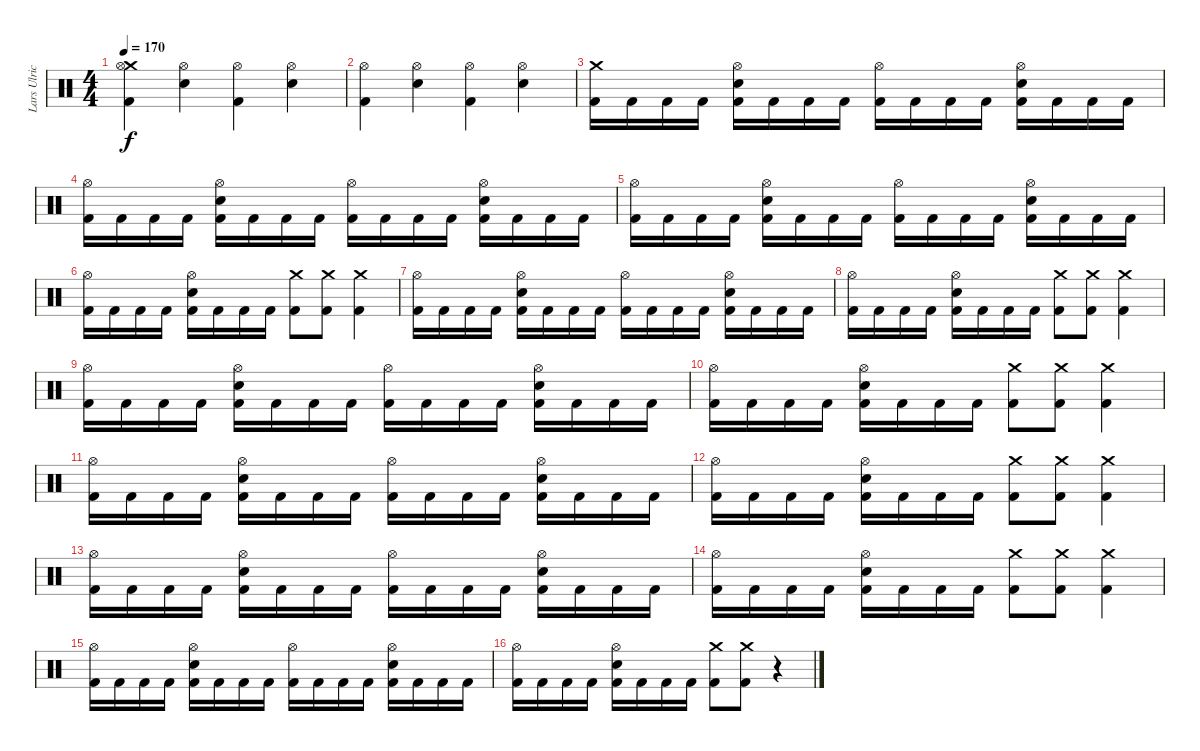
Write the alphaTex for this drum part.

\track ("Lars Ulrich" "Lars Ulric") {instrument percussion}
\staff {score}
\articulation defaults
\ts (4 4)
\tempo 170
\clef neutral
\ks c
("Crash medium (hit)" "Hi-Hat (open)" "Kick (hit) 2").4{dy f} ("Hi-Hat (open)" "Electric Snare (hit)").4 ("Hi-Hat (open)" "Kick (hit) 2").4 ("Hi-Hat (open)" "Electric Snare (hit)").4 |
("Hi-Hat (open)" "Kick (hit) 2").4 ("Hi-Hat (open)" "Electric Snare (hit)").4 ("Hi-Hat (open)" "Kick (hit) 2").4 ("Hi-Hat (open)" "Electric Snare (hit)").4 |
("Crash medium (hit)" "Kick (hit) 2").16 "Kick (hit) 2".16 "Kick (hit) 2".16 "Kick (hit) 2".16 ("Hi-Hat (open)" "Electric Snare (hit)" "Kick (hit) 2").16 "Kick (hit) 2".16 "Kick (hit) 2".16 "Kick (hit) 2".16 ("Hi-Hat (open)" "Kick (hit) 2").16 "Kick (hit) 2".16 "Kick (hit) 2".16 "Kick (hit) 2".16 ("Hi-Hat (open)" "Electric Snare (hit)" "Kick (hit) 2").16 "Kick (hit) 2".16 "Kick (hit) 2".16 "Kick (hit) 2".16 |
("Hi-Hat (open)" "Kick (hit) 2").16 "Kick (hit) 2".16 "Kick (hit) 2".16 "Kick (hit) 2".16 ("Hi-Hat (open)" "Electric Snare (hit)" "Kick (hit) 2").16 "Kick (hit) 2".16 "Kick (hit) 2".16 "Kick (hit) 2".16 ("Hi-Hat (open)" "Kick (hit) 2").16 "Kick (hit) 2".16 "Kick (hit) 2".16 "Kick (hit) 2".16 ("Hi-Hat (open)" "Electric Snare (hit)" "Kick (hit) 2").16 "Kick (hit) 2".16 "Kick (hit) 2".16 "Kick (hit) 2".16 |
("Hi-Hat (open)" "Kick (hit) 2").16 "Kick (hit) 2".16 "Kick (hit) 2".16 "Kick (hit) 2".16 ("Hi-Hat (open)" "Electric Snare (hit)" "Kick (hit) 2").16 "Kick (hit) 2".16 "Kick (hit) 2".16 "Kick (hit) 2".16 ("Hi-Hat (open)" "Kick (hit) 2").16 "Kick (hit) 2".16 "Kick (hit) 2".16 "Kick (hit) 2".16 ("Hi-Hat (open)" "Electric Snare (hit)" "Kick (hit) 2").16 "Kick (hit) 2".16 "Kick (hit) 2".16 "Kick (hit) 2".16 |
("Hi-Hat (open)" "Kick (hit) 2").16 "Kick (hit) 2".16 "Kick (hit) 2".16 "Kick (hit) 2".16 ("Hi-Hat (open)" "Electric Snare (hit)" "Kick (hit) 2").16 "Kick (hit) 2".16 "Kick (hit) 2".16 "Kick (hit) 2".16 ("Crash medium (hit)" "Kick (hit) 2").8 ("Crash medium (hit)" "Kick (hit) 2").8 ("Crash medium (hit)" "Kick (hit) 2").4 |
("Hi-Hat (open)" "Kick (hit) 2").16 "Kick (hit) 2".16 "Kick (hit) 2".16 "Kick (hit) 2".16 ("Hi-Hat (open)" "Electric Snare (hit)" "Kick (hit) 2").16 "Kick (hit) 2".16 "Kick (hit) 2".16 "Kick (hit) 2".16 ("Hi-Hat (open)" "Kick (hit) 2").16 "Kick (hit) 2".16 "Kick (hit) 2".16 "Kick (hit) 2".16 ("Hi-Hat (open)" "Electric Snare (hit)" "Kick (hit) 2").16 "Kick (hit) 2".16 "Kick (hit) 2".16 "Kick (hit) 2".16 |
("Hi-Hat (open)" "Kick (hit) 2").16 "Kick (hit) 2".16 "Kick (hit) 2".16 "Kick (hit) 2".16 ("Hi-Hat (open)" "Electric Snare (hit)" "Kick (hit) 2").16 "Kick (hit) 2".16 "Kick (hit) 2".16 "Kick (hit) 2".16 ("Crash medium (hit)" "Kick (hit) 2").8 ("Crash medium (hit)" "Kick (hit) 2").8 ("Crash medium (hit)" "Kick (hit) 2").4 |
("Hi-Hat (open)" "Kick (hit) 2").16 "Kick (hit) 2".16 "Kick (hit) 2".16 "Kick (hit) 2".16 ("Hi-Hat (open)" "Electric Snare (hit)" "Kick (hit) 2").16 "Kick (hit) 2".16 "Kick (hit) 2".16 "Kick (hit) 2".16 ("Hi-Hat (open)" "Kick (hit) 2").16 "Kick (hit) 2".16 "Kick (hit) 2".16 "Kick (hit) 2".16 ("Hi-Hat (open)" "Electric Snare (hit)" "Kick (hit) 2").16 "Kick (hit) 2".16 "Kick (hit) 2".16 "Kick (hit) 2".16 |
("Hi-Hat (open)" "Kick (hit) 2").16 "Kick (hit) 2".16 "Kick (hit) 2".16 "Kick (hit) 2".16 ("Hi-Hat (open)" "Electric Snare (hit)" "Kick (hit) 2").16 "Kick (hit) 2".16 "Kick (hit) 2".16 "Kick (hit) 2".16 ("Crash medium (hit)" "Kick (hit) 2").8 ("Crash medium (hit)" "Kick (hit) 2").8 ("Crash medium (hit)" "Kick (hit) 2").4 |
("Hi-Hat (open)" "Kick (hit) 2").16 "Kick (hit) 2".16 "Kick (hit) 2".16 "Kick (hit) 2".16 ("Hi-Hat (open)" "Electric Snare (hit)" "Kick (hit) 2").16 "Kick (hit) 2".16 "Kick (hit) 2".16 "Kick (hit) 2".16 ("Hi-Hat (open)" "Kick (hit) 2").16 "Kick (hit) 2".16 "Kick (hit) 2".16 "Kick (hit) 2".16 ("Hi-Hat (open)" "Electric Snare (hit)" "Kick (hit) 2").16 "Kick (hit) 2".16 "Kick (hit) 2".16 "Kick (hit) 2".16 |
("Hi-Hat (open)" "Kick (hit) 2").16 "Kick (hit) 2".16 "Kick (hit) 2".16 "Kick (hit) 2".16 ("Hi-Hat (open)" "Electric Snare (hit)" "Kick (hit) 2").16 "Kick (hit) 2".16 "Kick (hit) 2".16 "Kick (hit) 2".16 ("Crash medium (hit)" "Kick (hit) 2").8 ("Crash medium (hit)" "Kick (hit) 2").8 ("Crash medium (hit)" "Kick (hit) 2").4 |
("Hi-Hat (open)" "Kick (hit) 2").16 "Kick (hit) 2".16 "Kick (hit) 2".16 "Kick (hit) 2".16 ("Hi-Hat (open)" "Electric Snare (hit)" "Kick (hit) 2").16 "Kick (hit) 2".16 "Kick (hit) 2".16 "Kick (hit) 2".16 ("Hi-Hat (open)" "Kick (hit) 2").16 "Kick (hit) 2".16 "Kick (hit) 2".16 "Kick (hit) 2".16 ("Hi-Hat (open)" "Electric Snare (hit)" "Kick (hit) 2").16 "Kick (hit) 2".16 "Kick (hit) 2".16 "Kick (hit) 2".16 |
("Hi-Hat (open)" "Kick (hit) 2").16 "Kick (hit) 2".16 "Kick (hit) 2".16 "Kick (hit) 2".16 ("Hi-Hat (open)" "Electric Snare (hit)" "Kick (hit) 2").16 "Kick (hit) 2".16 "Kick (hit) 2".16 "Kick (hit) 2".16 ("Crash medium (hit)" "Kick (hit) 2").8 ("Crash medium (hit)" "Kick (hit) 2").8 ("Crash medium (hit)" "Kick (hit) 2").4 |
("Hi-Hat (open)" "Kick (hit) 2").16 "Kick (hit) 2".16 "Kick (hit) 2".16 "Kick (hit) 2".16 ("Hi-Hat (open)" "Electric Snare (hit)" "Kick (hit) 2").16 "Kick (hit) 2".16 "Kick (hit) 2".16 "Kick (hit) 2".16 ("Hi-Hat (open)" "Kick (hit) 2").16 "Kick (hit) 2".16 "Kick (hit) 2".16 "Kick (hit) 2".16 ("Hi-Hat (open)" "Electric Snare (hit)" "Kick (hit) 2").16 "Kick (hit) 2".16 "Kick (hit) 2".16 "Kick (hit) 2".16 |
("Hi-Hat (open)" "Kick (hit) 2").16 "Kick (hit) 2".16 "Kick (hit) 2".16 "Kick (hit) 2".16 ("Hi-Hat (open)" "Electric Snare (hit)" "Kick (hit) 2").16 "Kick (hit) 2".16 "Kick (hit) 2".16 "Kick (hit) 2".16 ("Crash medium (hit)" "Kick (hit) 2").8 ("Crash medium (hit)" "Kick (hit) 2").8 r.4
